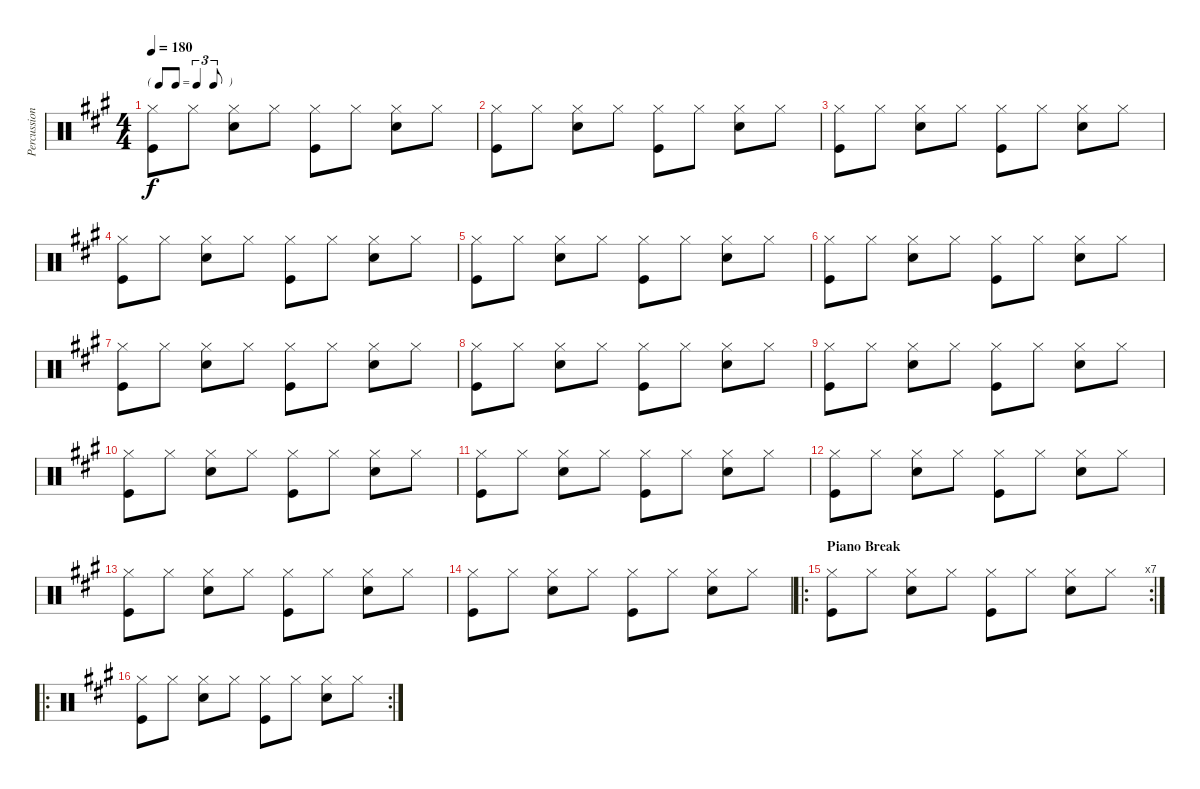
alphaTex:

\track ("Percussion" "Percussion") {instrument percussion}
\staff {score}
\articulation defaults
\ts (4 4)
\tf triplet8th
\tempo 180
\clef neutral
\ks a
("Hi-Hat (closed)" "Kick (hit)").8{dy f} "Hi-Hat (closed)".8 ("Hi-Hat (closed)" "Snare (hit) 2").8 "Hi-Hat (closed)".8 ("Hi-Hat (closed)" "Kick (hit)").8 "Hi-Hat (closed)".8 ("Hi-Hat (closed)" "Snare (hit) 2").8 "Hi-Hat (closed)".8 |
("Hi-Hat (closed)" "Kick (hit)").8 "Hi-Hat (closed)".8 ("Hi-Hat (closed)" "Snare (hit) 2").8 "Hi-Hat (closed)".8 ("Hi-Hat (closed)" "Kick (hit)").8 "Hi-Hat (closed)".8 ("Hi-Hat (closed)" "Snare (hit) 2").8 "Hi-Hat (closed)".8 |
("Hi-Hat (closed)" "Kick (hit)").8 "Hi-Hat (closed)".8 ("Hi-Hat (closed)" "Snare (hit) 2").8 "Hi-Hat (closed)".8 ("Hi-Hat (closed)" "Kick (hit)").8 "Hi-Hat (closed)".8 ("Hi-Hat (closed)" "Snare (hit) 2").8 "Hi-Hat (closed)".8 |
("Hi-Hat (closed)" "Kick (hit)").8 "Hi-Hat (closed)".8 ("Hi-Hat (closed)" "Snare (hit) 2").8 "Hi-Hat (closed)".8 ("Hi-Hat (closed)" "Kick (hit)").8 "Hi-Hat (closed)".8 ("Hi-Hat (closed)" "Snare (hit) 2").8 "Hi-Hat (closed)".8 |
("Hi-Hat (closed)" "Kick (hit)").8 "Hi-Hat (closed)".8 ("Hi-Hat (closed)" "Snare (hit) 2").8 "Hi-Hat (closed)".8 ("Hi-Hat (closed)" "Kick (hit)").8 "Hi-Hat (closed)".8 ("Hi-Hat (closed)" "Snare (hit) 2").8 "Hi-Hat (closed)".8 |
("Hi-Hat (closed)" "Kick (hit)").8 "Hi-Hat (closed)".8 ("Hi-Hat (closed)" "Snare (hit) 2").8 "Hi-Hat (closed)".8 ("Hi-Hat (closed)" "Kick (hit)").8 "Hi-Hat (closed)".8 ("Hi-Hat (closed)" "Snare (hit) 2").8 "Hi-Hat (closed)".8 |
("Hi-Hat (closed)" "Kick (hit)").8 "Hi-Hat (closed)".8 ("Hi-Hat (closed)" "Snare (hit) 2").8 "Hi-Hat (closed)".8 ("Hi-Hat (closed)" "Kick (hit)").8 "Hi-Hat (closed)".8 ("Hi-Hat (closed)" "Snare (hit) 2").8 "Hi-Hat (closed)".8 |
("Hi-Hat (closed)" "Kick (hit)").8 "Hi-Hat (closed)".8 ("Hi-Hat (closed)" "Snare (hit) 2").8 "Hi-Hat (closed)".8 ("Hi-Hat (closed)" "Kick (hit)").8 "Hi-Hat (closed)".8 ("Hi-Hat (closed)" "Snare (hit) 2").8 "Hi-Hat (closed)".8 |
("Hi-Hat (closed)" "Kick (hit)").8 "Hi-Hat (closed)".8 ("Hi-Hat (closed)" "Snare (hit) 2").8 "Hi-Hat (closed)".8 ("Hi-Hat (closed)" "Kick (hit)").8 "Hi-Hat (closed)".8 ("Hi-Hat (closed)" "Snare (hit) 2").8 "Hi-Hat (closed)".8 |
("Hi-Hat (closed)" "Kick (hit)").8 "Hi-Hat (closed)".8 ("Hi-Hat (closed)" "Snare (hit) 2").8 "Hi-Hat (closed)".8 ("Hi-Hat (closed)" "Kick (hit)").8 "Hi-Hat (closed)".8 ("Hi-Hat (closed)" "Snare (hit) 2").8 "Hi-Hat (closed)".8 |
("Hi-Hat (closed)" "Kick (hit)").8 "Hi-Hat (closed)".8 ("Hi-Hat (closed)" "Snare (hit) 2").8 "Hi-Hat (closed)".8 ("Hi-Hat (closed)" "Kick (hit)").8 "Hi-Hat (closed)".8 ("Hi-Hat (closed)" "Snare (hit) 2").8 "Hi-Hat (closed)".8 |
("Hi-Hat (closed)" "Kick (hit)").8 "Hi-Hat (closed)".8 ("Hi-Hat (closed)" "Snare (hit) 2").8 "Hi-Hat (closed)".8 ("Hi-Hat (closed)" "Kick (hit)").8 "Hi-Hat (closed)".8 ("Hi-Hat (closed)" "Snare (hit) 2").8 "Hi-Hat (closed)".8 |
("Hi-Hat (closed)" "Kick (hit)").8 "Hi-Hat (closed)".8 ("Hi-Hat (closed)" "Snare (hit) 2").8 "Hi-Hat (closed)".8 ("Hi-Hat (closed)" "Kick (hit)").8 "Hi-Hat (closed)".8 ("Hi-Hat (closed)" "Snare (hit) 2").8 "Hi-Hat (closed)".8 |
("Hi-Hat (closed)" "Kick (hit)").8 "Hi-Hat (closed)".8 ("Hi-Hat (closed)" "Snare (hit) 2").8 "Hi-Hat (closed)".8 ("Hi-Hat (closed)" "Kick (hit)").8 "Hi-Hat (closed)".8 ("Hi-Hat (closed)" "Snare (hit) 2").8 "Hi-Hat (closed)".8 |
\ro
\rc 7
\section ("" "Piano Break")
("Hi-Hat (closed)" "Kick (hit)").8 "Hi-Hat (closed)".8 ("Hi-Hat (closed)" "Snare (hit) 2").8 "Hi-Hat (closed)".8 ("Hi-Hat (closed)" "Kick (hit)").8 "Hi-Hat (closed)".8 ("Hi-Hat (closed)" "Snare (hit) 2").8 "Hi-Hat (closed)".8 |
\ro
\rc 2
("Hi-Hat (closed)" "Kick (hit)").8 "Hi-Hat (closed)".8 ("Hi-Hat (closed)" "Snare (hit) 2").8 "Hi-Hat (closed)".8 ("Hi-Hat (closed)" "Kick (hit)").8 "Hi-Hat (closed)".8 ("Hi-Hat (closed)" "Snare (hit) 2").8 "Hi-Hat (closed)".8
